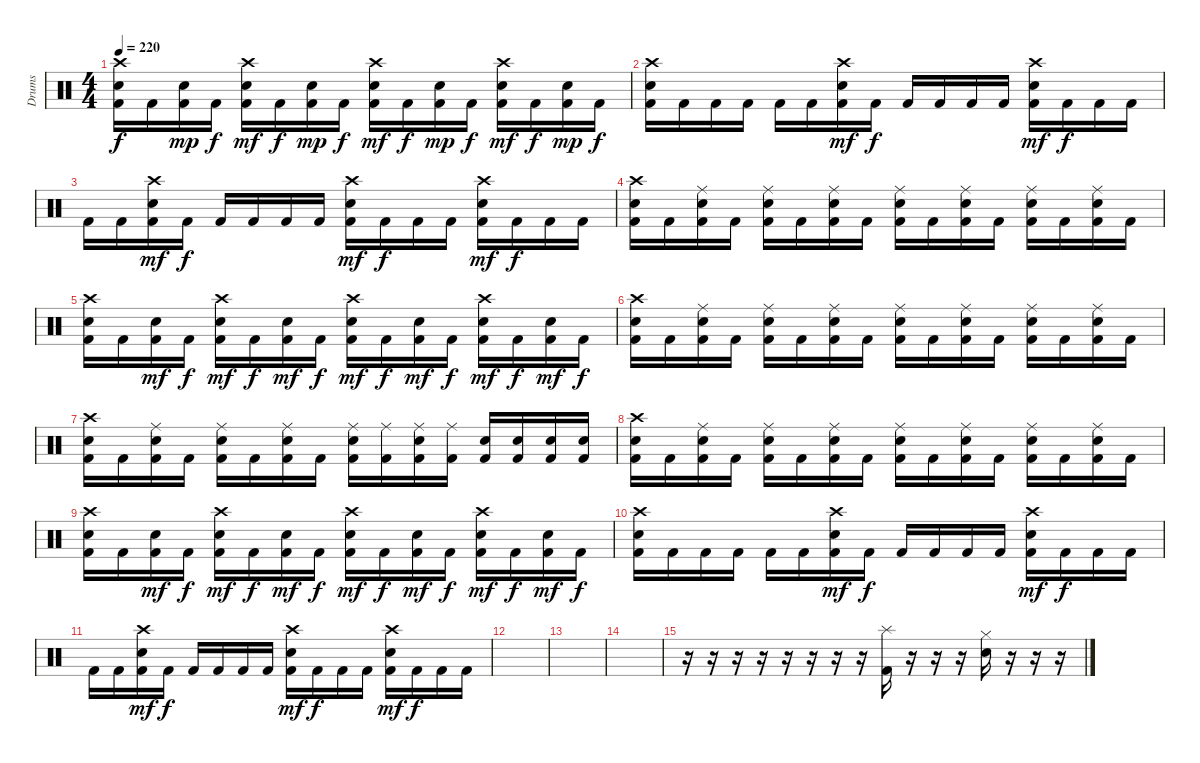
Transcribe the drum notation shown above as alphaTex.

\track ("Drums" "Drums") {instrument percussion}
\staff {score}
\articulation defaults
\ts (4 4)
\tempo 220
\clef neutral
\ks c
("Kick (hit) 2" "Electric Snare (hit)" "Crash high (hit)").16{dy f} "Kick (hit) 2".16 ("Kick (hit) 2" "Electric Snare (hit)").16{dy mp} "Kick (hit) 2".16{dy f} ("Kick (hit) 2" "Electric Snare (hit)" "Crash high (hit)").16{dy mf} "Kick (hit) 2".16{dy f} ("Kick (hit) 2" "Electric Snare (hit)").16{dy mp} "Kick (hit) 2".16{dy f} ("Kick (hit) 2" "Electric Snare (hit)" "Crash high (hit)").16{dy mf} "Kick (hit) 2".16{dy f} ("Kick (hit) 2" "Electric Snare (hit)").16{dy mp} "Kick (hit) 2".16{dy f} ("Kick (hit) 2" "Electric Snare (hit)" "Crash high (hit)").16{dy mf} "Kick (hit) 2".16{dy f} ("Kick (hit) 2" "Electric Snare (hit)").16{dy mp} "Kick (hit) 2".16{dy f} |
("Kick (hit) 2" "Electric Snare (hit)" "Crash high (hit)").16 "Kick (hit) 2".16 "Kick (hit) 2".16 "Kick (hit) 2".16 "Kick (hit) 2".16 "Kick (hit) 2".16 ("Kick (hit) 2" "Electric Snare (hit)" "Crash high (hit)").16{dy mf} "Kick (hit) 2".16{dy f} "Kick (hit) 2".16 "Kick (hit) 2".16 "Kick (hit) 2".16 "Kick (hit) 2".16 ("Kick (hit) 2" "Electric Snare (hit)" "Crash high (hit)").16{dy mf} "Kick (hit) 2".16{dy f} "Kick (hit) 2".16 "Kick (hit) 2".16 |
"Kick (hit) 2".16 "Kick (hit) 2".16 ("Kick (hit) 2" "Electric Snare (hit)" "Crash high (hit)").16{dy mf} "Kick (hit) 2".16{dy f} "Kick (hit) 2".16 "Kick (hit) 2".16 "Kick (hit) 2".16 "Kick (hit) 2".16 ("Kick (hit) 2" "Electric Snare (hit)" "Crash high (hit)").16{dy mf} "Kick (hit) 2".16{dy f} "Kick (hit) 2".16 "Kick (hit) 2".16 ("Kick (hit) 2" "Electric Snare (hit)" "Crash high (hit)").16{dy mf} "Kick (hit) 2".16{dy f} "Kick (hit) 2".16 "Kick (hit) 2".16 |
("Kick (hit) 2" "Electric Snare (hit)" "Crash high (hit)").16 "Kick (hit) 2".16 ("Kick (hit) 2" "Electric Snare (hit)" "Ride (middle)").16 "Kick (hit) 2".16 ("Kick (hit) 2" "Electric Snare (hit)" "Ride (middle)").16 "Kick (hit) 2".16 ("Kick (hit) 2" "Electric Snare (hit)" "Ride (middle)").16 "Kick (hit) 2".16 ("Kick (hit) 2" "Electric Snare (hit)" "Ride (middle)").16 "Kick (hit) 2".16 ("Kick (hit) 2" "Electric Snare (hit)" "Ride (middle)").16 "Kick (hit) 2".16 ("Kick (hit) 2" "Electric Snare (hit)" "Ride (middle)").16 "Kick (hit) 2".16 ("Kick (hit) 2" "Electric Snare (hit)" "Ride (middle)").16 "Kick (hit) 2".16 |
("Kick (hit) 2" "Electric Snare (hit)" "Crash high (hit)").16 "Kick (hit) 2".16 ("Kick (hit) 2" "Electric Snare (hit)").16{dy mf} "Kick (hit) 2".16{dy f} ("Kick (hit) 2" "Electric Snare (hit)" "Crash high (hit)").16{dy mf} "Kick (hit) 2".16{dy f} ("Kick (hit) 2" "Electric Snare (hit)").16{dy mf} "Kick (hit) 2".16{dy f} ("Kick (hit) 2" "Electric Snare (hit)" "Crash high (hit)").16{dy mf} "Kick (hit) 2".16{dy f} ("Kick (hit) 2" "Electric Snare (hit)").16{dy mf} "Kick (hit) 2".16{dy f} ("Kick (hit) 2" "Electric Snare (hit)" "Crash high (hit)").16{dy mf} "Kick (hit) 2".16{dy f} ("Kick (hit) 2" "Electric Snare (hit)").16{dy mf} "Kick (hit) 2".16{dy f} |
("Kick (hit) 2" "Electric Snare (hit)" "Crash high (hit)").16 "Kick (hit) 2".16 ("Kick (hit) 2" "Electric Snare (hit)" "Ride (middle)").16 "Kick (hit) 2".16 ("Kick (hit) 2" "Electric Snare (hit)" "Ride (middle)").16 "Kick (hit) 2".16 ("Kick (hit) 2" "Electric Snare (hit)" "Ride (middle)").16 "Kick (hit) 2".16 ("Kick (hit) 2" "Electric Snare (hit)" "Ride (middle)").16 "Kick (hit) 2".16 ("Kick (hit) 2" "Electric Snare (hit)" "Ride (middle)").16 "Kick (hit) 2".16 ("Kick (hit) 2" "Electric Snare (hit)" "Ride (middle)").16 "Kick (hit) 2".16 ("Kick (hit) 2" "Electric Snare (hit)" "Ride (middle)").16 "Kick (hit) 2".16 |
("Kick (hit) 2" "Electric Snare (hit)" "Crash high (hit)").16 "Kick (hit) 2".16 ("Kick (hit) 2" "Electric Snare (hit)" "Ride (middle)").16 "Kick (hit) 2".16 ("Kick (hit) 2" "Electric Snare (hit)" "Ride (middle)").16 "Kick (hit) 2".16 ("Kick (hit) 2" "Electric Snare (hit)" "Ride (middle)").16 "Kick (hit) 2".16 ("Kick (hit) 2" "Electric Snare (hit)" "Ride (middle)").16 ("Kick (hit) 2" "Ride (middle)").16 ("Kick (hit) 2" "Electric Snare (hit)" "Ride (middle)").16 ("Kick (hit) 2" "Ride (middle)").16 ("Kick (hit) 2" "Electric Snare (hit)").16 ("Kick (hit) 2" "Electric Snare (hit)").16 ("Kick (hit) 2" "Electric Snare (hit)").16 ("Kick (hit) 2" "Electric Snare (hit)").16 |
("Kick (hit) 2" "Electric Snare (hit)" "Crash high (hit)").16 "Kick (hit) 2".16 ("Kick (hit) 2" "Electric Snare (hit)" "Ride (middle)").16 "Kick (hit) 2".16 ("Kick (hit) 2" "Electric Snare (hit)" "Ride (middle)").16 "Kick (hit) 2".16 ("Kick (hit) 2" "Electric Snare (hit)" "Ride (middle)").16 "Kick (hit) 2".16 ("Kick (hit) 2" "Electric Snare (hit)" "Ride (middle)").16 "Kick (hit) 2".16 ("Kick (hit) 2" "Electric Snare (hit)" "Ride (middle)").16 "Kick (hit) 2".16 ("Kick (hit) 2" "Electric Snare (hit)" "Ride (middle)").16 "Kick (hit) 2".16 ("Kick (hit) 2" "Electric Snare (hit)" "Ride (middle)").16 "Kick (hit) 2".16 |
("Kick (hit) 2" "Electric Snare (hit)" "Crash high (hit)").16 "Kick (hit) 2".16 ("Kick (hit) 2" "Electric Snare (hit)").16{dy mf} "Kick (hit) 2".16{dy f} ("Kick (hit) 2" "Electric Snare (hit)" "Crash high (hit)").16{dy mf} "Kick (hit) 2".16{dy f} ("Kick (hit) 2" "Electric Snare (hit)").16{dy mf} "Kick (hit) 2".16{dy f} ("Kick (hit) 2" "Electric Snare (hit)" "Crash high (hit)").16{dy mf} "Kick (hit) 2".16{dy f} ("Kick (hit) 2" "Electric Snare (hit)").16{dy mf} "Kick (hit) 2".16{dy f} ("Kick (hit) 2" "Electric Snare (hit)" "Crash high (hit)").16{dy mf} "Kick (hit) 2".16{dy f} ("Kick (hit) 2" "Electric Snare (hit)").16{dy mf} "Kick (hit) 2".16{dy f} |
("Kick (hit) 2" "Electric Snare (hit)" "Crash high (hit)").16 "Kick (hit) 2".16 "Kick (hit) 2".16 "Kick (hit) 2".16 "Kick (hit) 2".16 "Kick (hit) 2".16 ("Kick (hit) 2" "Electric Snare (hit)" "Crash high (hit)").16{dy mf} "Kick (hit) 2".16{dy f} "Kick (hit) 2".16 "Kick (hit) 2".16 "Kick (hit) 2".16 "Kick (hit) 2".16 ("Kick (hit) 2" "Electric Snare (hit)" "Crash high (hit)").16{dy mf} "Kick (hit) 2".16{dy f} "Kick (hit) 2".16 "Kick (hit) 2".16 |
"Kick (hit) 2".16 "Kick (hit) 2".16 ("Kick (hit) 2" "Electric Snare (hit)" "Crash high (hit)").16{dy mf} "Kick (hit) 2".16{dy f} "Kick (hit) 2".16 "Kick (hit) 2".16 "Kick (hit) 2".16 "Kick (hit) 2".16 ("Kick (hit) 2" "Electric Snare (hit)" "Crash high (hit)").16{dy mf} "Kick (hit) 2".16{dy f} "Kick (hit) 2".16 "Kick (hit) 2".16 ("Kick (hit) 2" "Electric Snare (hit)" "Crash high (hit)").16{dy mf} "Kick (hit) 2".16{dy f} "Kick (hit) 2".16 "Kick (hit) 2".16 |
|
|
|
r.16 r.16 r.16 r.16 r.16 r.16 r.16 r.16 ("Kick (hit) 2" "Splash (hit)").16 r.16 r.16 r.16 ("Electric Snare (hit)" "Hi-Hat (closed)").16 r.16 r.16 r.16
